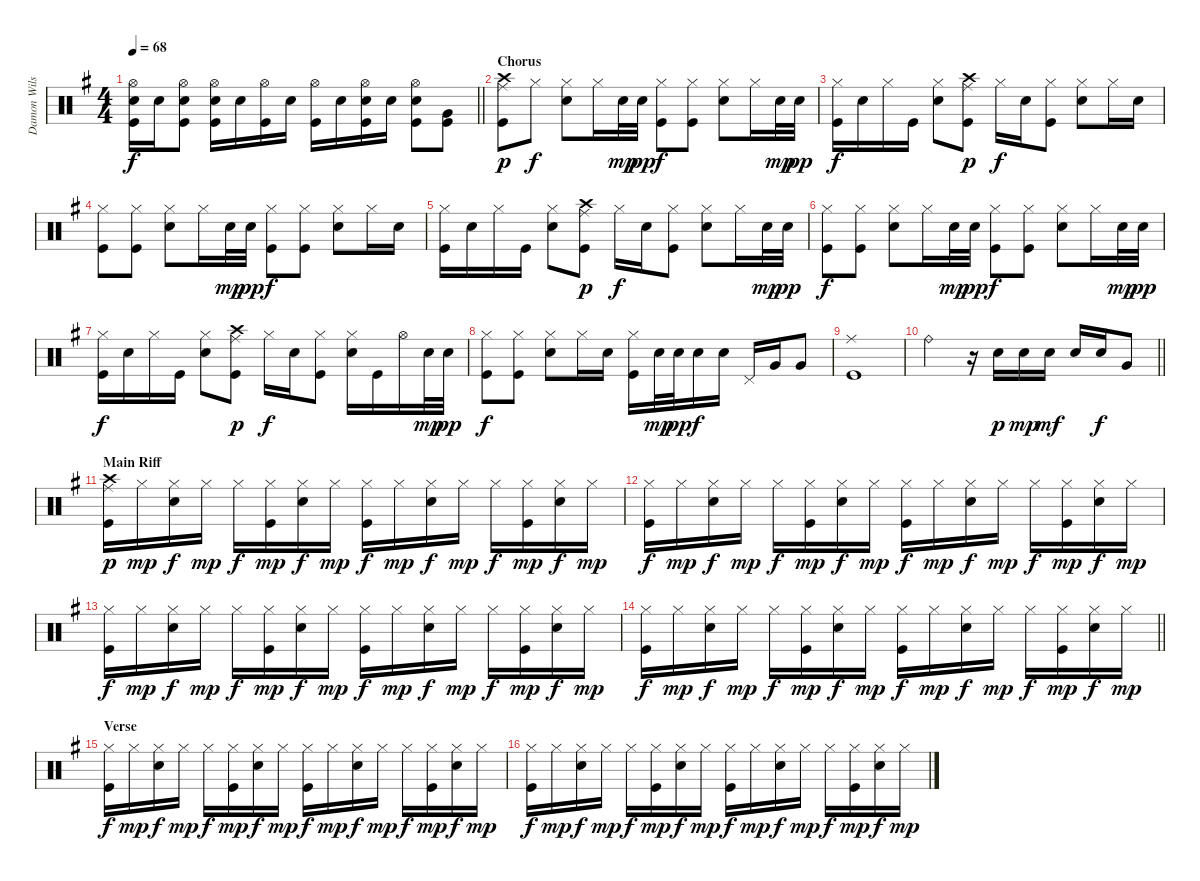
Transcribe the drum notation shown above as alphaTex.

\track ("Damon Wilson" "Damon Wils") {instrument percussion}
\staff {score}
\articulation defaults
\ts (4 4)
\tempo 68
\clef neutral
\barLineRight lightlight
\ks g
("Hi-Hat (open)" "Electric Snare (hit)" "Kick (hit)").16{dy f} "Electric Snare (hit)".16 ("Hi-Hat (open)" "Electric Snare (hit)" "Kick (hit)").8 ("Hi-Hat (open)" "Electric Snare (hit)" "Kick (hit)").16 "Electric Snare (hit)".16 ("Hi-Hat (open)" "Kick (hit)").16 "Electric Snare (hit)".16 ("Hi-Hat (open)" "Kick (hit)").16 "Electric Snare (hit)".16 ("Hi-Hat (open)" "Electric Snare (hit)" "Kick (hit)").16 "Electric Snare (hit)".16 ("Hi-Hat (open)" "Electric Snare (hit)" "Kick (hit)").8 ("Very Low Tom (hit)" "Kick (hit)").8 |
\section ("" "Chorus")
("Ride (middle)" "Crash high (hit)" "Kick (hit)").8{dy p} "Hi-Hat (closed)".8{dy f} ("Hi-Hat (closed)" "Electric Snare (hit)").8 "Hi-Hat (closed)".16 "Electric Snare (hit)".32{dy mp} "Electric Snare (hit)".32{dy pp} ("Hi-Hat (closed)" "Kick (hit)").8{dy f} ("Hi-Hat (closed)" "Kick (hit)").8 ("Hi-Hat (closed)" "Electric Snare (hit)").8 "Hi-Hat (closed)".16 "Electric Snare (hit)".32{dy mp} "Electric Snare (hit)".32{dy pp} |
("Hi-Hat (closed)" "Kick (hit)").16{dy f} "Electric Snare (hit)".16 "Hi-Hat (closed)".16 "Kick (hit)".16 ("Hi-Hat (closed)" "Electric Snare (hit)").8 ("Ride (middle)" "Crash high (hit)" "Kick (hit)").8{dy p} "Hi-Hat (closed)".16{dy f} "Electric Snare (hit)".16 ("Hi-Hat (closed)" "Kick (hit)").8 ("Hi-Hat (closed)" "Electric Snare (hit)").8 "Hi-Hat (closed)".16 "Electric Snare (hit)".16 |
("Hi-Hat (closed)" "Kick (hit)").8 ("Hi-Hat (closed)" "Kick (hit)").8 ("Hi-Hat (closed)" "Electric Snare (hit)").8 "Hi-Hat (closed)".16 "Electric Snare (hit)".32{dy mp} "Electric Snare (hit)".32{dy pp} ("Hi-Hat (closed)" "Kick (hit)").8{dy f} ("Hi-Hat (closed)" "Kick (hit)").8 ("Hi-Hat (closed)" "Electric Snare (hit)").8 "Hi-Hat (closed)".16 "Electric Snare (hit)".16 |
("Hi-Hat (closed)" "Kick (hit)").16 "Electric Snare (hit)".16 "Hi-Hat (closed)".16 "Kick (hit)".16 ("Hi-Hat (closed)" "Electric Snare (hit)").8 ("Ride (middle)" "Crash high (hit)" "Kick (hit)").8{dy p} "Hi-Hat (closed)".16{dy f} "Electric Snare (hit)".16 ("Hi-Hat (closed)" "Kick (hit)").8 ("Hi-Hat (closed)" "Electric Snare (hit)").8 "Hi-Hat (closed)".16 "Electric Snare (hit)".32{dy mp} "Electric Snare (hit)".32{dy pp} |
("Hi-Hat (closed)" "Kick (hit)").8{dy f} ("Hi-Hat (closed)" "Kick (hit)").8 ("Hi-Hat (closed)" "Electric Snare (hit)").8 "Hi-Hat (closed)".16 "Electric Snare (hit)".32{dy mp} "Electric Snare (hit)".32{dy pp} ("Hi-Hat (closed)" "Kick (hit)").8{dy f} ("Hi-Hat (closed)" "Kick (hit)").8 ("Hi-Hat (closed)" "Electric Snare (hit)").8 "Hi-Hat (closed)".16 "Electric Snare (hit)".32{dy mp} "Electric Snare (hit)".32{dy pp} |
("Hi-Hat (closed)" "Kick (hit)").16{dy f} "Electric Snare (hit)".16 "Hi-Hat (closed)".16 "Kick (hit)".16 ("Hi-Hat (closed)" "Electric Snare (hit)").8 ("Ride (middle)" "Crash high (hit)" "Kick (hit)").8{dy p} "Hi-Hat (closed)".16{dy f} "Electric Snare (hit)".16 ("Hi-Hat (closed)" "Kick (hit)").8 ("Hi-Hat (closed)" "Electric Snare (hit)").16 "Kick (hit)".16 "Hi-Hat (open)".16 "Electric Snare (hit)".32{dy mp} "Electric Snare (hit)".32{dy pp} |
("Hi-Hat (closed)" "Kick (hit)").8{dy f} ("Hi-Hat (closed)" "Kick (hit)").8 ("Hi-Hat (closed)" "Electric Snare (hit)").8 "Hi-Hat (closed)".16 "Electric Snare (hit)".16 ("Hi-Hat (closed)" "Kick (hit)").16 "Electric Snare (hit)".32{dy mp} "Electric Snare (hit)".32{dy pp} "Electric Snare (hit)".16{dy f} "Electric Snare (hit)".16 "Pedal Hi-Hat (hit)".16 "Very Low Tom (hit)".16 "Very Low Tom (hit)".8 |
("Ride (middle)" "Kick (hit)").1 |
\barLineRight lightlight "Ride (bell)".2
r.16 "Electric Snare (hit)".16{dy p} "Electric Snare (hit)".16{dy mp} "Electric Snare (hit)".16{dy mf} "Electric Snare (hit)".16 "Electric Snare (hit)".16{dy f} "Very Low Tom (hit)".8 |
\section ("" "Main Riff")
("Ride (middle)" "Crash high (hit)" "Kick (hit)").16{dy p} "Hi-Hat (closed)".16{dy mp} ("Hi-Hat (closed)" "Electric Snare (hit)").16{dy f} "Hi-Hat (closed)".16{dy mp} "Hi-Hat (closed)".16{dy f} ("Hi-Hat (closed)" "Kick (hit)").16{dy mp} ("Hi-Hat (closed)" "Electric Snare (hit)").16{dy f} "Hi-Hat (closed)".16{dy mp} ("Hi-Hat (closed)" "Kick (hit)").16{dy f} "Hi-Hat (closed)".16{dy mp} ("Hi-Hat (closed)" "Electric Snare (hit)").16{dy f} "Hi-Hat (closed)".16{dy mp} "Hi-Hat (closed)".16{dy f} ("Hi-Hat (closed)" "Kick (hit)").16{dy mp} ("Hi-Hat (closed)" "Electric Snare (hit)").16{dy f} "Hi-Hat (closed)".16{dy mp} |
("Hi-Hat (closed)" "Kick (hit)").16{dy f} "Hi-Hat (closed)".16{dy mp} ("Hi-Hat (closed)" "Electric Snare (hit)").16{dy f} "Hi-Hat (closed)".16{dy mp} "Hi-Hat (closed)".16{dy f} ("Hi-Hat (closed)" "Kick (hit)").16{dy mp} ("Hi-Hat (closed)" "Electric Snare (hit)").16{dy f} "Hi-Hat (closed)".16{dy mp} ("Hi-Hat (closed)" "Kick (hit)").16{dy f} "Hi-Hat (closed)".16{dy mp} ("Hi-Hat (closed)" "Electric Snare (hit)").16{dy f} "Hi-Hat (closed)".16{dy mp} "Hi-Hat (closed)".16{dy f} ("Hi-Hat (closed)" "Kick (hit)").16{dy mp} ("Hi-Hat (closed)" "Electric Snare (hit)").16{dy f} "Hi-Hat (closed)".16{dy mp} |
("Hi-Hat (closed)" "Kick (hit)").16{dy f} "Hi-Hat (closed)".16{dy mp} ("Hi-Hat (closed)" "Electric Snare (hit)").16{dy f} "Hi-Hat (closed)".16{dy mp} "Hi-Hat (closed)".16{dy f} ("Hi-Hat (closed)" "Kick (hit)").16{dy mp} ("Hi-Hat (closed)" "Electric Snare (hit)").16{dy f} "Hi-Hat (closed)".16{dy mp} ("Hi-Hat (closed)" "Kick (hit)").16{dy f} "Hi-Hat (closed)".16{dy mp} ("Hi-Hat (closed)" "Electric Snare (hit)").16{dy f} "Hi-Hat (closed)".16{dy mp} "Hi-Hat (closed)".16{dy f} ("Hi-Hat (closed)" "Kick (hit)").16{dy mp} ("Hi-Hat (closed)" "Electric Snare (hit)").16{dy f} "Hi-Hat (closed)".16{dy mp} |
\barLineRight lightlight
("Hi-Hat (closed)" "Kick (hit)").16{dy f} "Hi-Hat (closed)".16{dy mp} ("Hi-Hat (closed)" "Electric Snare (hit)").16{dy f} "Hi-Hat (closed)".16{dy mp} "Hi-Hat (closed)".16{dy f} ("Hi-Hat (closed)" "Kick (hit)").16{dy mp} ("Hi-Hat (closed)" "Electric Snare (hit)").16{dy f} "Hi-Hat (closed)".16{dy mp} ("Hi-Hat (closed)" "Kick (hit)").16{dy f} "Hi-Hat (closed)".16{dy mp} ("Hi-Hat (closed)" "Electric Snare (hit)").16{dy f} "Hi-Hat (closed)".16{dy mp} "Hi-Hat (closed)".16{dy f} ("Hi-Hat (closed)" "Kick (hit)").16{dy mp} ("Hi-Hat (closed)" "Electric Snare (hit)").16{dy f} "Hi-Hat (closed)".16{dy mp} |
\section ("" "Verse")
("Hi-Hat (closed)" "Kick (hit)").16{dy f} "Hi-Hat (closed)".16{dy mp} ("Hi-Hat (closed)" "Electric Snare (hit)").16{dy f} "Hi-Hat (closed)".16{dy mp} "Hi-Hat (closed)".16{dy f} ("Hi-Hat (closed)" "Kick (hit)").16{dy mp} ("Hi-Hat (closed)" "Electric Snare (hit)").16{dy f} "Hi-Hat (closed)".16{dy mp} ("Hi-Hat (closed)" "Kick (hit)").16{dy f} "Hi-Hat (closed)".16{dy mp} ("Hi-Hat (closed)" "Electric Snare (hit)").16{dy f} "Hi-Hat (closed)".16{dy mp} "Hi-Hat (closed)".16{dy f} ("Hi-Hat (closed)" "Kick (hit)").16{dy mp} ("Hi-Hat (closed)" "Electric Snare (hit)").16{dy f} "Hi-Hat (closed)".16{dy mp} |
("Hi-Hat (closed)" "Kick (hit)").16{dy f} "Hi-Hat (closed)".16{dy mp} ("Hi-Hat (closed)" "Electric Snare (hit)").16{dy f} "Hi-Hat (closed)".16{dy mp} "Hi-Hat (closed)".16{dy f} ("Hi-Hat (closed)" "Kick (hit)").16{dy mp} ("Hi-Hat (closed)" "Electric Snare (hit)").16{dy f} "Hi-Hat (closed)".16{dy mp} ("Hi-Hat (closed)" "Kick (hit)").16{dy f} "Hi-Hat (closed)".16{dy mp} ("Hi-Hat (closed)" "Electric Snare (hit)").16{dy f} "Hi-Hat (closed)".16{dy mp} "Hi-Hat (closed)".16{dy f} ("Hi-Hat (closed)" "Kick (hit)").16{dy mp} ("Hi-Hat (closed)" "Electric Snare (hit)").16{dy f} "Hi-Hat (closed)".16{dy mp}
